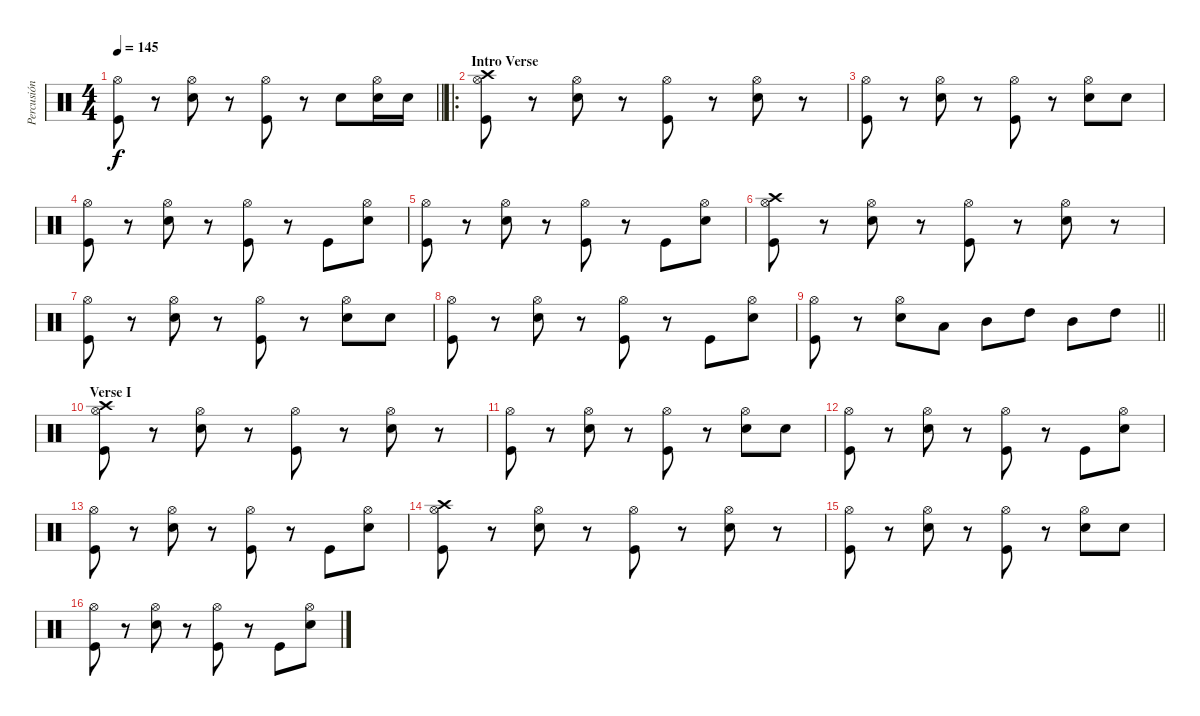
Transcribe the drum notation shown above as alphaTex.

\track ("Percusión" "Percusión") {instrument percussion}
\staff {score}
\articulation defaults
\ts (4 4)
\tempo 145
\clef neutral
\barLineRight lightlight
\ks c
("Hi-Hat (open)" "Kick (hit)").8{dy f} r.8 ("Hi-Hat (open)" "Electric Snare (hit)").8 r.8 ("Hi-Hat (open)" "Kick (hit)").8 r.8 "Electric Snare (hit)".8 ("Hi-Hat (open)" "Electric Snare (hit)").16 "Electric Snare (hit)".16 |
\ro
\section ("" "Intro Verse")
("Crash high (hit)" "Hi-Hat (open)" "Kick (hit)").8 r.8 ("Hi-Hat (open)" "Electric Snare (hit)").8 r.8 ("Hi-Hat (open)" "Kick (hit)").8 r.8 ("Hi-Hat (open)" "Electric Snare (hit)").8 r.8 |
("Hi-Hat (open)" "Kick (hit)").8 r.8 ("Hi-Hat (open)" "Electric Snare (hit)").8 r.8 ("Hi-Hat (open)" "Kick (hit)").8 r.8 ("Hi-Hat (open)" "Electric Snare (hit)").8 "Electric Snare (hit)".8 |
("Hi-Hat (open)" "Kick (hit)").8 r.8 ("Hi-Hat (open)" "Electric Snare (hit)").8 r.8 ("Hi-Hat (open)" "Kick (hit)").8 r.8 "Kick (hit)".8 ("Hi-Hat (open)" "Electric Snare (hit)").8 |
("Hi-Hat (open)" "Kick (hit)").8 r.8 ("Hi-Hat (open)" "Electric Snare (hit)").8 r.8 ("Hi-Hat (open)" "Kick (hit)").8 r.8 "Kick (hit)".8 ("Hi-Hat (open)" "Electric Snare (hit)").8 |
("Crash high (hit)" "Hi-Hat (open)" "Kick (hit)").8 r.8 ("Hi-Hat (open)" "Electric Snare (hit)").8 r.8 ("Hi-Hat (open)" "Kick (hit)").8 r.8 ("Hi-Hat (open)" "Electric Snare (hit)").8 r.8 |
("Hi-Hat (open)" "Kick (hit)").8 r.8 ("Hi-Hat (open)" "Electric Snare (hit)").8 r.8 ("Hi-Hat (open)" "Kick (hit)").8 r.8 ("Hi-Hat (open)" "Electric Snare (hit)").8 "Electric Snare (hit)".8 |
("Hi-Hat (open)" "Kick (hit)").8 r.8 ("Hi-Hat (open)" "Electric Snare (hit)").8 r.8 ("Hi-Hat (open)" "Kick (hit)").8 r.8 "Kick (hit)".8 ("Hi-Hat (open)" "Electric Snare (hit)").8 |
\barLineRight lightlight
("Hi-Hat (open)" "Kick (hit)").8 r.8 ("Hi-Hat (open)" "Electric Snare (hit)").8 "Low Tom (hit)".8 "Mid Tom (hit)".8 "High Tom (hit)".8 "Mid Tom (hit)".8 "High Tom (hit)".8 |
\section ("" "Verse I")
("Crash high (hit)" "Hi-Hat (open)" "Kick (hit)").8 r.8 ("Hi-Hat (open)" "Electric Snare (hit)").8 r.8 ("Hi-Hat (open)" "Kick (hit)").8 r.8 ("Hi-Hat (open)" "Electric Snare (hit)").8 r.8 |
("Hi-Hat (open)" "Kick (hit)").8 r.8 ("Hi-Hat (open)" "Electric Snare (hit)").8 r.8 ("Hi-Hat (open)" "Kick (hit)").8 r.8 ("Hi-Hat (open)" "Electric Snare (hit)").8 "Electric Snare (hit)".8 |
("Hi-Hat (open)" "Kick (hit)").8 r.8 ("Hi-Hat (open)" "Electric Snare (hit)").8 r.8 ("Hi-Hat (open)" "Kick (hit)").8 r.8 "Kick (hit)".8 ("Hi-Hat (open)" "Electric Snare (hit)").8 |
("Hi-Hat (open)" "Kick (hit)").8 r.8 ("Hi-Hat (open)" "Electric Snare (hit)").8 r.8 ("Hi-Hat (open)" "Kick (hit)").8 r.8 "Kick (hit)".8 ("Hi-Hat (open)" "Electric Snare (hit)").8 |
("Crash high (hit)" "Hi-Hat (open)" "Kick (hit)").8 r.8 ("Hi-Hat (open)" "Electric Snare (hit)").8 r.8 ("Hi-Hat (open)" "Kick (hit)").8 r.8 ("Hi-Hat (open)" "Electric Snare (hit)").8 r.8 |
("Hi-Hat (open)" "Kick (hit)").8 r.8 ("Hi-Hat (open)" "Electric Snare (hit)").8 r.8 ("Hi-Hat (open)" "Kick (hit)").8 r.8 ("Hi-Hat (open)" "Electric Snare (hit)").8 "Electric Snare (hit)".8 |
("Hi-Hat (open)" "Kick (hit)").8 r.8 ("Hi-Hat (open)" "Electric Snare (hit)").8 r.8 ("Hi-Hat (open)" "Kick (hit)").8 r.8 "Kick (hit)".8 ("Hi-Hat (open)" "Electric Snare (hit)").8
